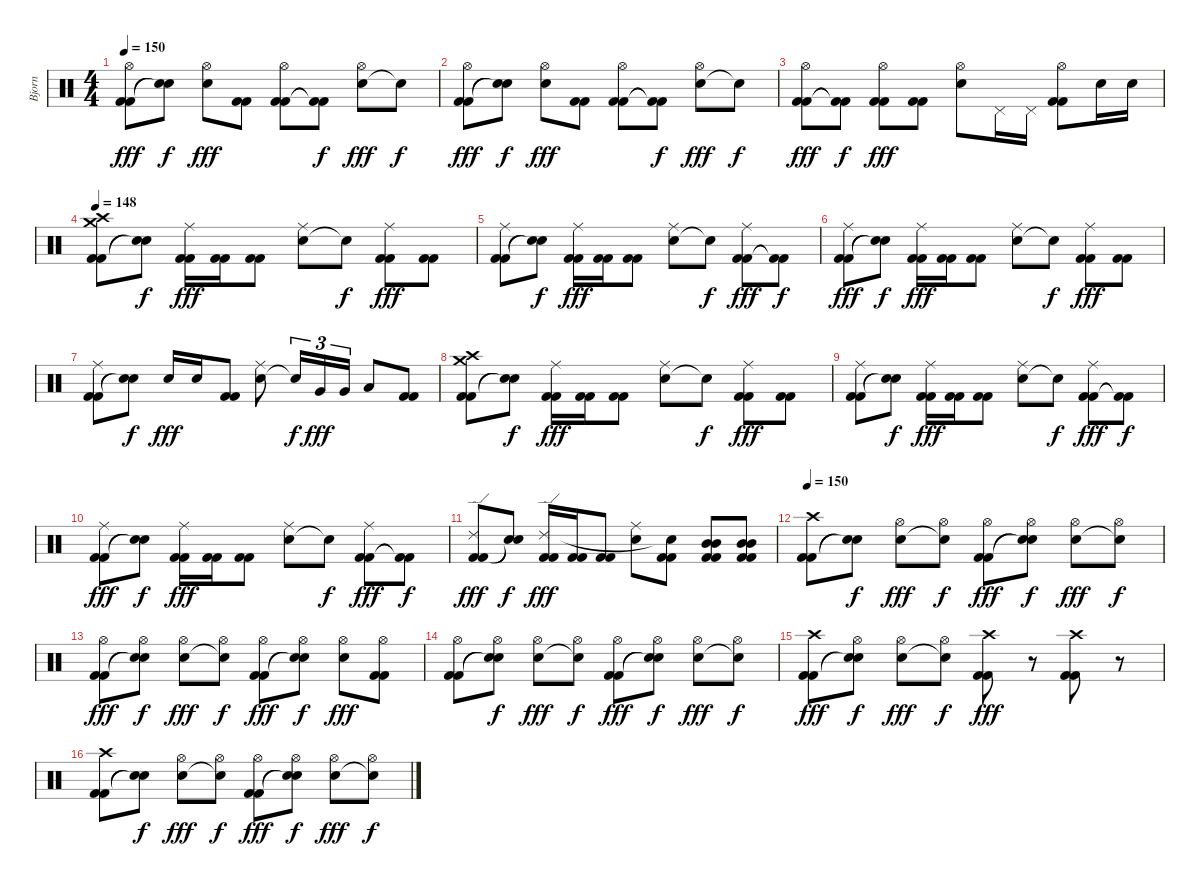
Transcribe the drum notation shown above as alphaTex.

\track ("Bjorn" "Bjorn") {instrument percussion}
\staff {score}
\articulation defaults
\ts (4 4)
\tempo 150
\clef neutral
\ks c
("Kick (hit) 2" "Kick (hit) 2" "Hi-Hat (open)").8{dy fff} ("Snare (hit)"{t} "Snare (hit)"{t}).8{dy f} ("Snare (hit) 2" "Hi-Hat (open)").8{dy fff} ("Kick (hit) 2" "Kick (hit) 2").8 ("Kick (hit) 2" "Kick (hit) 2" "Hi-Hat (open)").8 ("Kick (hit) 2"{t} "Kick (hit) 2"{t}).8{dy f} ("Snare (hit) 2" "Hi-Hat (open)").8{dy fff} "Snare (hit)"{t}.8{dy f} |
("Kick (hit) 2" "Kick (hit) 2" "Hi-Hat (open)").8{dy fff} ("Snare (hit)"{t} "Snare (hit)"{t}).8{dy f} ("Snare (hit) 2" "Hi-Hat (open)").8{dy fff} ("Kick (hit) 2" "Kick (hit) 2").8 ("Kick (hit) 2" "Kick (hit) 2" "Hi-Hat (open)").8 ("Kick (hit) 2"{t} "Kick (hit) 2"{t}).8{dy f} ("Snare (hit) 2" "Hi-Hat (open)").8{dy fff} "Snare (hit)"{t}.8{dy f} |
("Kick (hit) 2" "Kick (hit) 2" "Hi-Hat (open)").8{dy fff} ("Kick (hit) 2"{t} "Kick (hit) 2"{t}).8{dy f} ("Kick (hit) 2" "Kick (hit) 2" "Hi-Hat (open)").8{dy fff} ("Kick (hit) 2" "Kick (hit) 2").8 ("Snare (hit) 2" "Hi-Hat (open)").8 "Pedal Hi-Hat (hit)".16 "Pedal Hi-Hat (hit)".16 ("Kick (hit) 2" "Kick (hit) 2" "Hi-Hat (open)").8 "Snare (hit) 2".16 "Snare (hit) 2".16 |
\tempo 148
("Kick (hit) 2" "Kick (hit) 2" "Crash high (hit)" "Crash medium (hit)").8 ("Snare (hit)"{t} "Snare (hit)"{t}).8{dy f} ("Kick (hit) 2" "Kick (hit) 2" "Ride (middle)").16{dy fff} ("Kick (hit) 2" "Kick (hit) 2").16 ("Kick (hit) 2" "Kick (hit) 2").8 ("Snare (hit) 2" "Ride (middle)").8 "Snare (hit)"{t}.8{dy f} ("Kick (hit) 2" "Kick (hit) 2" "Ride (middle)").8{dy fff} ("Kick (hit) 2" "Kick (hit) 2").8 |
("Kick (hit) 2" "Kick (hit) 2" "Ride (middle)").8 ("Snare (hit)"{t} "Snare (hit)"{t}).8{dy f} ("Kick (hit) 2" "Kick (hit) 2" "Ride (middle)").16{dy fff} ("Kick (hit) 2" "Kick (hit) 2").16 ("Kick (hit) 2" "Kick (hit) 2").8 ("Snare (hit) 2" "Ride (middle)").8 "Snare (hit)"{t}.8{dy f} ("Kick (hit) 2" "Kick (hit) 2" "Ride (middle)").8{dy fff} ("Kick (hit) 2"{t} "Kick (hit) 2"{t}).8{dy f} |
("Kick (hit) 2" "Kick (hit) 2" "Ride (middle)").8{dy fff} ("Snare (hit)"{t} "Snare (hit)"{t}).8{dy f} ("Kick (hit) 2" "Kick (hit) 2" "Ride (middle)").16{dy fff} ("Kick (hit) 2" "Kick (hit) 2").16 ("Kick (hit) 2" "Kick (hit) 2").8 ("Snare (hit) 2" "Ride (middle)").8 "Snare (hit)"{t}.8{dy f} ("Kick (hit) 2" "Kick (hit) 2" "Ride (middle)").8{dy fff} ("Kick (hit) 2" "Kick (hit) 2").8 |
("Kick (hit) 2" "Kick (hit) 2" "Ride (middle)").8 ("Snare (hit)"{t} "Snare (hit)"{t}).8{dy f} "Snare (hit) 2".16{dy fff} "Snare (hit) 2".16 ("Kick (hit) 2" "Kick (hit) 2").8 ("Snare (hit) 2" "Ride (middle)").8 "Snare (hit)"{t}.16{tu (3 2) dy f} "Very Low Tom (hit)".16{tu (3 2) dy fff} "Very Low Tom (hit)".16{tu (3 2)} "Low Floor Tom (hit)".8 ("Kick (hit) 2" "Kick (hit) 2").8 |
("Kick (hit) 2" "Kick (hit) 2" "Crash high (hit)" "Crash medium (hit)").8 ("Snare (hit)"{t} "Snare (hit)"{t}).8{dy f} ("Kick (hit) 2" "Kick (hit) 2" "Ride (middle)").16{dy fff} ("Kick (hit) 2" "Kick (hit) 2").16 ("Kick (hit) 2" "Kick (hit) 2").8 ("Snare (hit) 2" "Ride (middle)").8 "Snare (hit)"{t}.8{dy f} ("Kick (hit) 2" "Kick (hit) 2" "Ride (middle)").8{dy fff} ("Kick (hit) 2" "Kick (hit) 2").8 |
("Kick (hit) 2" "Kick (hit) 2" "Ride (middle)").8 ("Snare (hit)"{t} "Snare (hit)"{t}).8{dy f} ("Kick (hit) 2" "Kick (hit) 2" "Ride (middle)").16{dy fff} ("Kick (hit) 2" "Kick (hit) 2").16 ("Kick (hit) 2" "Kick (hit) 2").8 ("Snare (hit) 2" "Ride (middle)").8 "Snare (hit)"{t}.8{dy f} ("Kick (hit) 2" "Kick (hit) 2" "Ride (middle)").8{dy fff} ("Kick (hit) 2"{t} "Kick (hit) 2"{t}).8{dy f} |
("Kick (hit) 2" "Kick (hit) 2" "Ride (middle)").8{dy fff} ("Snare (hit)"{t} "Snare (hit)"{t}).8{dy f} ("Kick (hit) 2" "Kick (hit) 2" "Ride (middle)").16{dy fff} ("Kick (hit) 2" "Kick (hit) 2").16 ("Kick (hit) 2" "Kick (hit) 2").8 ("Snare (hit) 2" "Ride (middle)").8 "Snare (hit)"{t}.8{dy f} ("Kick (hit) 2" "Kick (hit) 2" "Ride (middle)").8{dy fff} ("Kick (hit) 2"{t} "Kick (hit) 2"{t}).8{dy f} |
("Kick (hit) 2" "Kick (hit) 2" "Ride (edge) 2").8{dy fff} ("Snare (hit)"{t} "Snare (hit)"{t}).8{dy f} ("Kick (hit) 2" "Kick (hit) 2" "Ride (edge) 2").16{dy fff} ("Kick (hit) 2" "Kick (hit) 2").16 ("Kick (hit) 2" "Kick (hit) 2").8 ("Snare (hit) 2" "Ride (middle)").8 ("Kick (hit) 2" "Kick (hit) 2" "Snare (hit)"{t}).8 ("Kick (hit) 2" "Kick (hit) 2" "Mid Tom (hit)" "Mid Tom (hit)").8 ("Kick (hit) 2" "Kick (hit) 2" "Mid Tom (hit)" "Mid Tom (hit)").8 |
\tempo 150
("Kick (hit) 2" "Kick (hit) 2" "Crash high (hit)").8 ("Snare (hit)"{t} "Snare (hit)"{t}).8{dy f} ("Snare (hit) 2" "Hi-Hat (open)").8{dy fff} ("Snare (hit)"{t} "Hi-Hat (open)").8{dy f} ("Kick (hit) 2" "Kick (hit) 2" "Hi-Hat (open)").8{dy fff} ("Snare (hit)"{t} "Snare (hit)"{t} "Hi-Hat (open)").8{dy f} ("Snare (hit) 2" "Hi-Hat (open)").8{dy fff} ("Snare (hit)"{t} "Hi-Hat (open)").8{dy f} |
("Kick (hit) 2" "Kick (hit) 2" "Hi-Hat (open)").8{dy fff} ("Snare (hit)"{t} "Snare (hit)"{t} "Hi-Hat (open)").8{dy f} ("Snare (hit) 2" "Hi-Hat (open)").8{dy fff} ("Snare (hit)"{t} "Hi-Hat (open)").8{dy f} ("Kick (hit) 2" "Kick (hit) 2" "Hi-Hat (open)").8{dy fff} ("Snare (hit)"{t} "Snare (hit)"{t} "Hi-Hat (open)").8{dy f} ("Snare (hit) 2" "Hi-Hat (open)").8{dy fff} ("Kick (hit) 2" "Kick (hit) 2" "Hi-Hat (open)").8 |
("Kick (hit) 2" "Kick (hit) 2" "Hi-Hat (open)").8 ("Snare (hit)"{t} "Snare (hit)"{t} "Hi-Hat (open)").8{dy f} ("Snare (hit) 2" "Hi-Hat (open)").8{dy fff} ("Snare (hit)"{t} "Hi-Hat (open)").8{dy f} ("Kick (hit) 2" "Kick (hit) 2" "Hi-Hat (open)").8{dy fff} ("Snare (hit)"{t} "Snare (hit)"{t} "Hi-Hat (open)").8{dy f} ("Snare (hit) 2" "Hi-Hat (open)").8{dy fff} ("Snare (hit)"{t} "Hi-Hat (open)").8{dy f} |
("Kick (hit) 2" "Kick (hit) 2" "Crash high (hit)").8{dy fff} ("Snare (hit)"{t} "Snare (hit)"{t} "Hi-Hat (open)").8{dy f} ("Snare (hit) 2" "Hi-Hat (open)").8{dy fff} ("Snare (hit)"{t} "Hi-Hat (open)").8{dy f} ("Kick (hit) 2" "Kick (hit) 2" "Crash high (hit)").8{dy fff} r.8 ("Kick (hit) 2" "Kick (hit) 2" "Crash high (hit)").8 r.8 |
("Kick (hit) 2" "Kick (hit) 2" "Crash high (hit)").8 ("Snare (hit)"{t} "Snare (hit)"{t}).8{dy f} ("Snare (hit) 2" "Hi-Hat (open)").8{dy fff} ("Snare (hit)"{t} "Hi-Hat (open)").8{dy f} ("Kick (hit) 2" "Kick (hit) 2" "Hi-Hat (open)").8{dy fff} ("Snare (hit)"{t} "Snare (hit)"{t} "Hi-Hat (open)").8{dy f} ("Snare (hit) 2" "Hi-Hat (open)").8{dy fff} ("Snare (hit)"{t} "Hi-Hat (open)").8{dy f}
